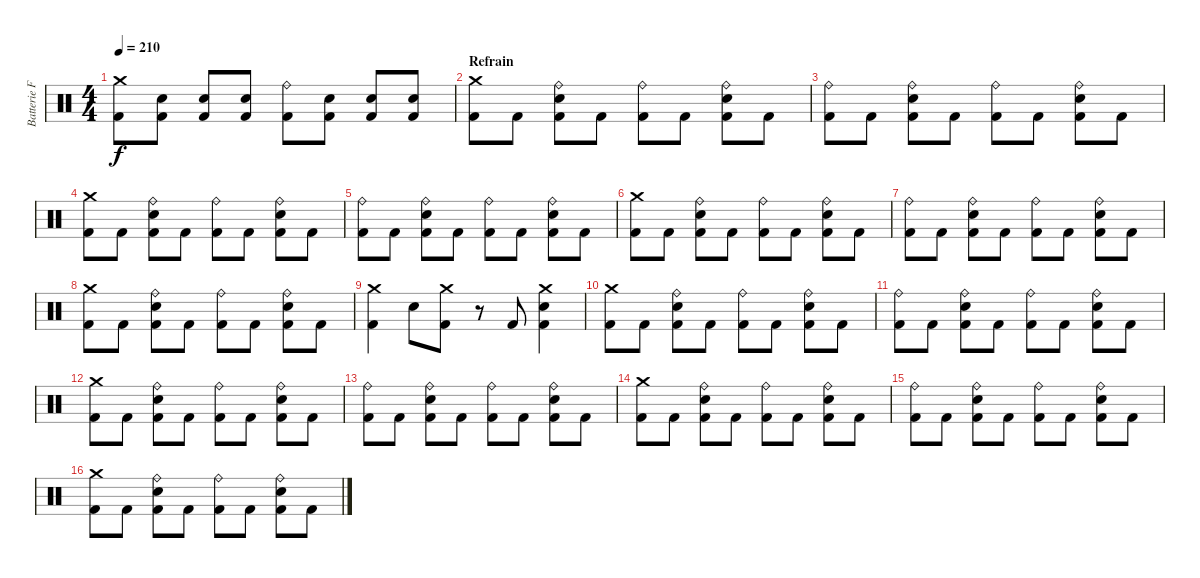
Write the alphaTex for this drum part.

\track ("Batterie Franck" "Batterie F") {instrument percussion}
\staff {score}
\articulation defaults
\ts (4 4)
\tempo 210
\clef neutral
\ks c
("Crash medium (hit)" "Kick (hit) 2").8{dy f} ("Snare (hit) 2" "Kick (hit) 2").8 ("Snare (hit) 2" "Kick (hit) 2").8 ("Snare (hit) 2" "Kick (hit) 2").8 ("Ride (bell)" "Kick (hit) 2").8 ("Snare (hit) 2" "Kick (hit) 2").8 ("Snare (hit) 2" "Kick (hit) 2").8 ("Snare (hit) 2" "Kick (hit) 2").8 |
\section ("" "Refrain")
("Crash medium (hit)" "Kick (hit) 2").8 "Kick (hit) 2".8 ("Ride (bell)" "Snare (hit) 2" "Kick (hit) 2").8 "Kick (hit) 2".8 ("Ride (bell)" "Kick (hit) 2").8 "Kick (hit) 2".8 ("Ride (bell)" "Snare (hit) 2" "Kick (hit) 2").8 "Kick (hit) 2".8 |
("Ride (bell)" "Kick (hit) 2").8 "Kick (hit) 2".8 ("Ride (bell)" "Snare (hit) 2" "Kick (hit) 2").8 "Kick (hit) 2".8 ("Ride (bell)" "Kick (hit) 2").8 "Kick (hit) 2".8 ("Ride (bell)" "Snare (hit) 2" "Kick (hit) 2").8 "Kick (hit) 2".8 |
("Crash medium (hit)" "Kick (hit) 2").8 "Kick (hit) 2".8 ("Ride (bell)" "Snare (hit) 2" "Kick (hit) 2").8 "Kick (hit) 2".8 ("Ride (bell)" "Kick (hit) 2").8 "Kick (hit) 2".8 ("Ride (bell)" "Snare (hit) 2" "Kick (hit) 2").8 "Kick (hit) 2".8 |
("Ride (bell)" "Kick (hit) 2").8 "Kick (hit) 2".8 ("Ride (bell)" "Snare (hit) 2" "Kick (hit) 2").8 "Kick (hit) 2".8 ("Ride (bell)" "Kick (hit) 2").8 "Kick (hit) 2".8 ("Ride (bell)" "Snare (hit) 2" "Kick (hit) 2").8 "Kick (hit) 2".8 |
("Crash medium (hit)" "Kick (hit) 2").8 "Kick (hit) 2".8 ("Ride (bell)" "Snare (hit) 2" "Kick (hit) 2").8 "Kick (hit) 2".8 ("Ride (bell)" "Kick (hit) 2").8 "Kick (hit) 2".8 ("Ride (bell)" "Snare (hit) 2" "Kick (hit) 2").8 "Kick (hit) 2".8 |
("Ride (bell)" "Kick (hit) 2").8 "Kick (hit) 2".8 ("Ride (bell)" "Snare (hit) 2" "Kick (hit) 2").8 "Kick (hit) 2".8 ("Ride (bell)" "Kick (hit) 2").8 "Kick (hit) 2".8 ("Ride (bell)" "Snare (hit) 2" "Kick (hit) 2").8 "Kick (hit) 2".8 |
("Crash medium (hit)" "Kick (hit) 2").8 "Kick (hit) 2".8 ("Ride (bell)" "Snare (hit) 2" "Kick (hit) 2").8 "Kick (hit) 2".8 ("Ride (bell)" "Kick (hit) 2").8 "Kick (hit) 2".8 ("Ride (bell)" "Snare (hit) 2" "Kick (hit) 2").8 "Kick (hit) 2".8 |
("Crash medium (hit)" "Kick (hit) 2").4 "Snare (hit) 2".8 ("Crash medium (hit)" "Kick (hit) 2").8 r.8 "Kick (hit) 2".8 ("Crash medium (hit)" "Snare (hit) 2" "Kick (hit) 2").4 |
("Crash medium (hit)" "Kick (hit) 2").8 "Kick (hit) 2".8 ("Ride (bell)" "Snare (hit) 2" "Kick (hit) 2").8 "Kick (hit) 2".8 ("Ride (bell)" "Kick (hit) 2").8 "Kick (hit) 2".8 ("Ride (bell)" "Snare (hit) 2" "Kick (hit) 2").8 "Kick (hit) 2".8 |
("Ride (bell)" "Kick (hit) 2").8 "Kick (hit) 2".8 ("Ride (bell)" "Snare (hit) 2" "Kick (hit) 2").8 "Kick (hit) 2".8 ("Ride (bell)" "Kick (hit) 2").8 "Kick (hit) 2".8 ("Ride (bell)" "Snare (hit) 2" "Kick (hit) 2").8 "Kick (hit) 2".8 |
("Crash medium (hit)" "Kick (hit) 2").8 "Kick (hit) 2".8 ("Ride (bell)" "Snare (hit) 2" "Kick (hit) 2").8 "Kick (hit) 2".8 ("Ride (bell)" "Kick (hit) 2").8 "Kick (hit) 2".8 ("Ride (bell)" "Snare (hit) 2" "Kick (hit) 2").8 "Kick (hit) 2".8 |
("Ride (bell)" "Kick (hit) 2").8 "Kick (hit) 2".8 ("Ride (bell)" "Snare (hit) 2" "Kick (hit) 2").8 "Kick (hit) 2".8 ("Ride (bell)" "Kick (hit) 2").8 "Kick (hit) 2".8 ("Ride (bell)" "Snare (hit) 2" "Kick (hit) 2").8 "Kick (hit) 2".8 |
("Crash medium (hit)" "Kick (hit) 2").8 "Kick (hit) 2".8 ("Ride (bell)" "Snare (hit) 2" "Kick (hit) 2").8 "Kick (hit) 2".8 ("Ride (bell)" "Kick (hit) 2").8 "Kick (hit) 2".8 ("Ride (bell)" "Snare (hit) 2" "Kick (hit) 2").8 "Kick (hit) 2".8 |
("Ride (bell)" "Kick (hit) 2").8 "Kick (hit) 2".8 ("Ride (bell)" "Snare (hit) 2" "Kick (hit) 2").8 "Kick (hit) 2".8 ("Ride (bell)" "Kick (hit) 2").8 "Kick (hit) 2".8 ("Ride (bell)" "Snare (hit) 2" "Kick (hit) 2").8 "Kick (hit) 2".8 |
("Crash medium (hit)" "Kick (hit) 2").8 "Kick (hit) 2".8 ("Ride (bell)" "Snare (hit) 2" "Kick (hit) 2").8 "Kick (hit) 2".8 ("Ride (bell)" "Kick (hit) 2").8 "Kick (hit) 2".8 ("Ride (bell)" "Snare (hit) 2" "Kick (hit) 2").8 "Kick (hit) 2".8
